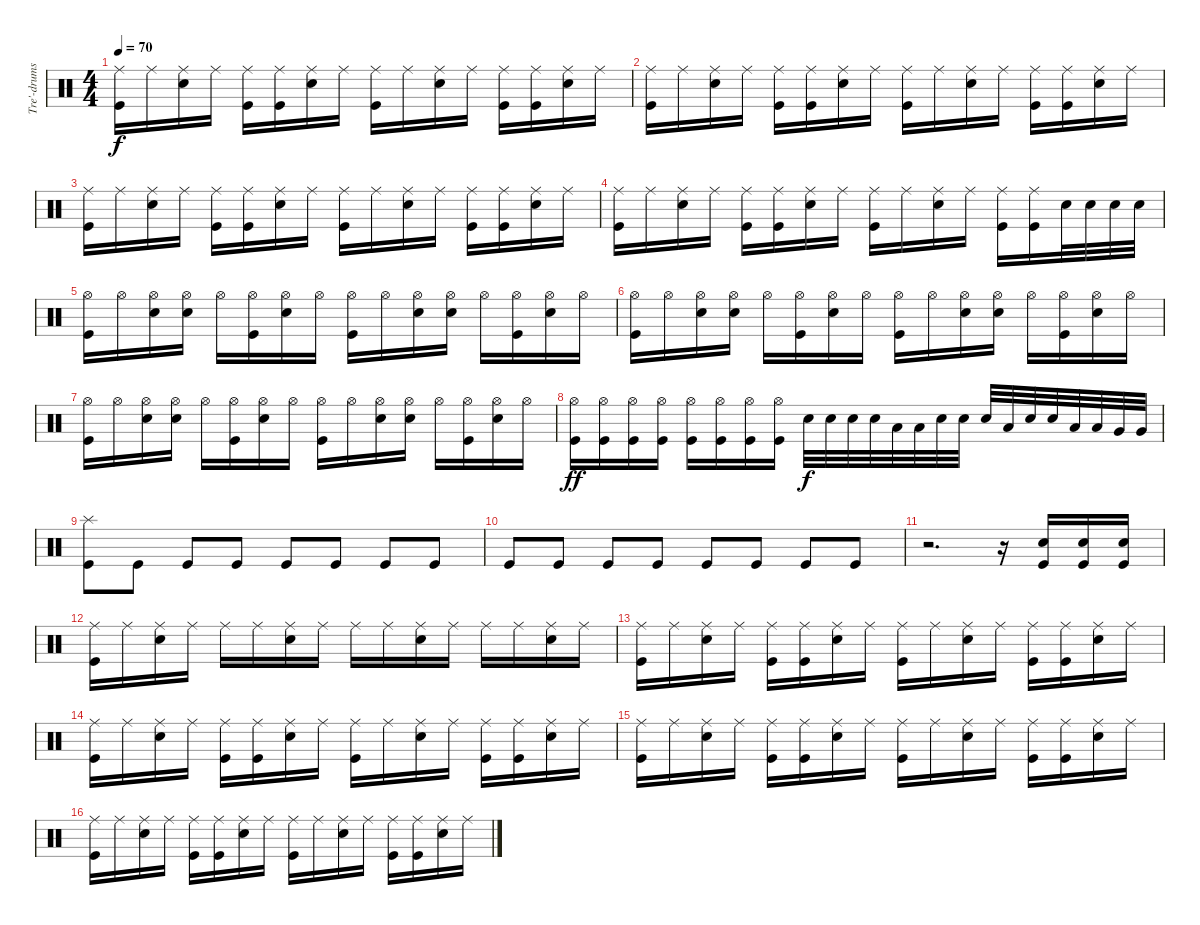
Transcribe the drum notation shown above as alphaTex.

\track ("Tre'-drums" "Tre'-drums") {instrument percussion}
\staff {score}
\articulation defaults
\ts (4 4)
\tempo 70
\clef neutral
\ks c
("Ride (middle)" "Kick (hit)").16{dy f} "Ride (middle)".16 ("Ride (middle)" "Snare (hit) 2").16 "Ride (middle)".16 ("Ride (middle)" "Kick (hit)").16 ("Ride (middle)" "Kick (hit)").16 ("Ride (middle)" "Snare (hit) 2").16 "Ride (middle)".16 ("Ride (middle)" "Kick (hit)").16 "Ride (middle)".16 ("Ride (middle)" "Snare (hit) 2").16 "Ride (middle)".16 ("Ride (middle)" "Kick (hit)").16 ("Ride (middle)" "Kick (hit)").16 ("Ride (middle)" "Snare (hit) 2").16 "Ride (middle)".16 |
("Ride (middle)" "Kick (hit)").16 "Ride (middle)".16 ("Ride (middle)" "Snare (hit) 2").16 "Ride (middle)".16 ("Ride (middle)" "Kick (hit)").16 ("Ride (middle)" "Kick (hit)").16 ("Ride (middle)" "Snare (hit) 2").16 "Ride (middle)".16 ("Ride (middle)" "Kick (hit)").16 "Ride (middle)".16 ("Ride (middle)" "Snare (hit) 2").16 "Ride (middle)".16 ("Ride (middle)" "Kick (hit)").16 ("Ride (middle)" "Kick (hit)").16 ("Ride (middle)" "Snare (hit) 2").16 "Ride (middle)".16 |
("Ride (middle)" "Kick (hit)").16 "Ride (middle)".16 ("Ride (middle)" "Snare (hit) 2").16 "Ride (middle)".16 ("Ride (middle)" "Kick (hit)").16 ("Ride (middle)" "Kick (hit)").16 ("Ride (middle)" "Snare (hit) 2").16 "Ride (middle)".16 ("Ride (middle)" "Kick (hit)").16 "Ride (middle)".16 ("Ride (middle)" "Snare (hit) 2").16 "Ride (middle)".16 ("Ride (middle)" "Kick (hit)").16 ("Ride (middle)" "Kick (hit)").16 ("Ride (middle)" "Snare (hit) 2").16 "Ride (middle)".16 |
("Ride (middle)" "Kick (hit)").16 "Ride (middle)".16 ("Ride (middle)" "Snare (hit) 2").16 "Ride (middle)".16 ("Ride (middle)" "Kick (hit)").16 ("Ride (middle)" "Kick (hit)").16 ("Ride (middle)" "Snare (hit) 2").16 "Ride (middle)".16 ("Ride (middle)" "Kick (hit)").16 "Ride (middle)".16 ("Ride (middle)" "Snare (hit) 2").16 "Ride (middle)".16 ("Ride (middle)" "Kick (hit)").16 ("Ride (middle)" "Kick (hit)").16 "Snare (hit) 2".32 "Snare (hit) 2".32 "Snare (hit) 2".32 "Snare (hit) 2".32 |
("Hi-Hat (open)" "Kick (hit)").16 "Hi-Hat (open)".16 ("Hi-Hat (open)" "Snare (hit) 2").16 ("Hi-Hat (open)" "Snare (hit) 2").16 "Hi-Hat (open)".16 ("Hi-Hat (open)" "Kick (hit)").16 ("Hi-Hat (open)" "Snare (hit) 2").16 "Hi-Hat (open)".16 ("Hi-Hat (open)" "Kick (hit)").16 "Hi-Hat (open)".16 ("Hi-Hat (open)" "Snare (hit) 2").16 ("Hi-Hat (open)" "Snare (hit) 2").16 "Hi-Hat (open)".16 ("Hi-Hat (open)" "Kick (hit)").16 ("Hi-Hat (open)" "Snare (hit) 2").16 "Hi-Hat (open)".16 |
("Hi-Hat (open)" "Kick (hit)").16 "Hi-Hat (open)".16 ("Hi-Hat (open)" "Snare (hit) 2").16 ("Hi-Hat (open)" "Snare (hit) 2").16 "Hi-Hat (open)".16 ("Hi-Hat (open)" "Kick (hit)").16 ("Hi-Hat (open)" "Snare (hit) 2").16 "Hi-Hat (open)".16 ("Hi-Hat (open)" "Kick (hit)").16 "Hi-Hat (open)".16 ("Hi-Hat (open)" "Snare (hit) 2").16 ("Hi-Hat (open)" "Snare (hit) 2").16 "Hi-Hat (open)".16 ("Hi-Hat (open)" "Kick (hit)").16 ("Hi-Hat (open)" "Snare (hit) 2").16 "Hi-Hat (open)".16 |
("Hi-Hat (open)" "Kick (hit)").16 "Hi-Hat (open)".16 ("Hi-Hat (open)" "Snare (hit) 2").16 ("Hi-Hat (open)" "Snare (hit) 2").16 "Hi-Hat (open)".16 ("Hi-Hat (open)" "Kick (hit)").16 ("Hi-Hat (open)" "Snare (hit) 2").16 "Hi-Hat (open)".16 ("Hi-Hat (open)" "Kick (hit)").16 "Hi-Hat (open)".16 ("Hi-Hat (open)" "Snare (hit) 2").16 ("Hi-Hat (open)" "Snare (hit) 2").16 "Hi-Hat (open)".16 ("Hi-Hat (open)" "Kick (hit)").16 ("Hi-Hat (open)" "Snare (hit) 2").16 "Hi-Hat (open)".16 |
("Hi-Hat (open)" "Kick (hit)").16{dy ff} ("Hi-Hat (open)" "Kick (hit)").16 ("Hi-Hat (open)" "Kick (hit)").16 ("Hi-Hat (open)" "Kick (hit)").16 ("Hi-Hat (open)" "Kick (hit)").16 ("Hi-Hat (open)" "Kick (hit)").16 ("Hi-Hat (open)" "Kick (hit)").16 ("Hi-Hat (open)" "Kick (hit)").16 "Snare (hit) 2".32{dy f} "Snare (hit) 2".32 "Snare (hit) 2".32 "Snare (hit) 2".32 "Low Tom (hit)".32 "Low Tom (hit)".32 "Snare (hit) 2".32 "Snare (hit) 2".32 "Snare (hit) 2".32 "Low Tom (hit)".32 "Snare (hit) 2".32 "Snare (hit) 2".32 "Low Tom (hit)".32 "Low Tom (hit)".32 "Very Low Tom (hit)".32 "Very Low Tom (hit)".32 |
("Splash (hit)" "Kick (hit)").8 "Kick (hit)".8 "Kick (hit)".8 "Kick (hit)".8 "Kick (hit)".8 "Kick (hit)".8 "Kick (hit)".8 "Kick (hit)".8 |
"Kick (hit)".8 "Kick (hit)".8 "Kick (hit)".8 "Kick (hit)".8 "Kick (hit)".8 "Kick (hit)".8 "Kick (hit)".8 "Kick (hit)".8 |
r.2{d} r.16 ("Snare (hit) 2" "Kick (hit)").16 ("Snare (hit) 2" "Kick (hit)").16 ("Snare (hit) 2" "Kick (hit)").16 |
("Ride (middle)" "Kick (hit)").16 "Ride (middle)".16 ("Ride (middle)" "Snare (hit) 2").16 "Ride (middle)".16 "Ride (middle)".16 "Ride (middle)".16 ("Ride (middle)" "Snare (hit) 2").16 "Ride (middle)".16 "Ride (middle)".16 "Ride (middle)".16 ("Ride (middle)" "Snare (hit) 2").16 "Ride (middle)".16 "Ride (middle)".16 "Ride (middle)".16 ("Ride (middle)" "Snare (hit) 2").16 "Ride (middle)".16 |
("Ride (middle)" "Kick (hit)").16 "Ride (middle)".16 ("Ride (middle)" "Snare (hit) 2").16 "Ride (middle)".16 ("Ride (middle)" "Kick (hit)").16 ("Ride (middle)" "Kick (hit)").16 ("Ride (middle)" "Snare (hit) 2").16 "Ride (middle)".16 ("Ride (middle)" "Kick (hit)").16 "Ride (middle)".16 ("Ride (middle)" "Snare (hit) 2").16 "Ride (middle)".16 ("Ride (middle)" "Kick (hit)").16 ("Ride (middle)" "Kick (hit)").16 ("Ride (middle)" "Snare (hit) 2").16 "Ride (middle)".16 |
("Ride (middle)" "Kick (hit)").16 "Ride (middle)".16 ("Ride (middle)" "Snare (hit) 2").16 "Ride (middle)".16 ("Ride (middle)" "Kick (hit)").16 ("Ride (middle)" "Kick (hit)").16 ("Ride (middle)" "Snare (hit) 2").16 "Ride (middle)".16 ("Ride (middle)" "Kick (hit)").16 "Ride (middle)".16 ("Ride (middle)" "Snare (hit) 2").16 "Ride (middle)".16 ("Ride (middle)" "Kick (hit)").16 ("Ride (middle)" "Kick (hit)").16 ("Ride (middle)" "Snare (hit) 2").16 "Ride (middle)".16 |
("Ride (middle)" "Kick (hit)").16 "Ride (middle)".16 ("Ride (middle)" "Snare (hit) 2").16 "Ride (middle)".16 ("Ride (middle)" "Kick (hit)").16 ("Ride (middle)" "Kick (hit)").16 ("Ride (middle)" "Snare (hit) 2").16 "Ride (middle)".16 ("Ride (middle)" "Kick (hit)").16 "Ride (middle)".16 ("Ride (middle)" "Snare (hit) 2").16 "Ride (middle)".16 ("Ride (middle)" "Kick (hit)").16 ("Ride (middle)" "Kick (hit)").16 ("Ride (middle)" "Snare (hit) 2").16 "Ride (middle)".16 |
("Ride (middle)" "Kick (hit)").16 "Ride (middle)".16 ("Ride (middle)" "Snare (hit) 2").16 "Ride (middle)".16 ("Ride (middle)" "Kick (hit)").16 ("Ride (middle)" "Kick (hit)").16 ("Ride (middle)" "Snare (hit) 2").16 "Ride (middle)".16 ("Ride (middle)" "Kick (hit)").16 "Ride (middle)".16 ("Ride (middle)" "Snare (hit) 2").16 "Ride (middle)".16 ("Ride (middle)" "Kick (hit)").16 ("Ride (middle)" "Kick (hit)").16 ("Ride (middle)" "Snare (hit) 2").16 "Ride (middle)".16
